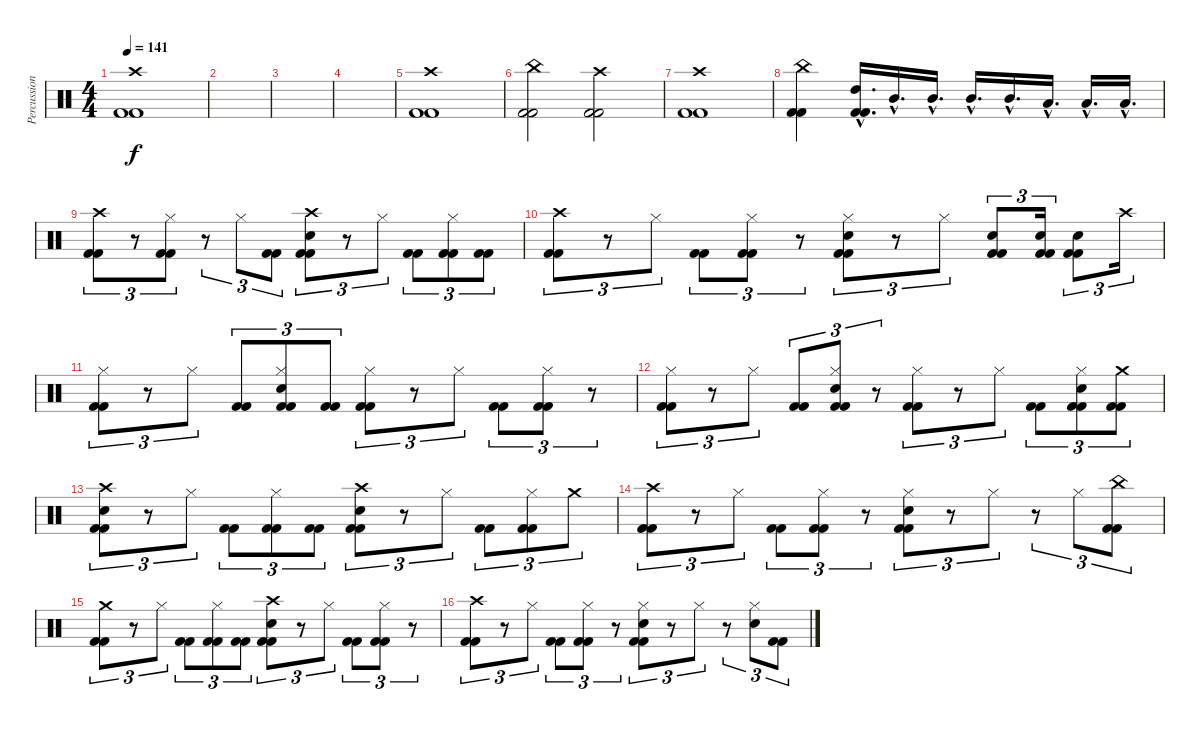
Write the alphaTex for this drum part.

\track ("Percussions" "Percussion") {instrument percussion}
\staff {score}
\articulation defaults
\ts (4 4)
\tempo 141
\clef neutral
\ks c
("Crash high (hit)" "Kick (hit) 2" "Kick (hit) 2").1{dy f} |
|
|
|
("Crash high (hit)" "Kick (hit) 2" "Kick (hit) 2").1 |
("China (hit)" "Kick (hit) 2" "Kick (hit) 2").2 ("Crash high (hit)" "Kick (hit) 2" "Kick (hit) 2").2 |
("Crash high (hit)" "Kick (hit) 2" "Kick (hit) 2").1 |
("China (hit)" "Kick (hit) 2" "Kick (hit) 2").4 ("High Tom (hit)"{hac} "Kick (hit) 2"{hac} "Kick (hit) 2"{hac}).16{d} "Mid Tom (hit)"{hac}.16{d} "Mid Tom (hit)"{hac}.16{d} "Mid Tom (hit)"{hac}.16{d} "Mid Tom (hit)"{hac}.16{d} "Low Tom (hit)"{hac}.16{d} "Low Tom (hit)"{hac}.16{d} "Low Tom (hit)"{hac}.16{d} |
("Crash high (hit)" "Kick (hit) 2" "Kick (hit) 2").8{tu (3 2)} r.8{tu (3 2)} ("Hi-Hat (closed)" "Kick (hit) 2" "Kick (hit) 2").8{tu (3 2)} r.8{tu (3 2)} "Hi-Hat (closed)".8{tu (3 2)} ("Kick (hit) 2" "Kick (hit) 2").8{tu (3 2)} ("Crash high (hit)" "Snare (hit) 2" "Kick (hit) 2" "Kick (hit) 2").8{tu (3 2)} r.8{tu (3 2)} "Hi-Hat (closed)".8{tu (3 2)} ("Kick (hit) 2" "Kick (hit) 2").8{tu (3 2)} ("Hi-Hat (closed)" "Kick (hit) 2" "Kick (hit) 2").8{tu (3 2)} ("Kick (hit) 2" "Kick (hit) 2").8{tu (3 2)} |
("Crash high (hit)" "Kick (hit) 2" "Kick (hit) 2").8{tu (3 2)} r.8{tu (3 2)} "Hi-Hat (closed)".8{tu (3 2)} ("Kick (hit) 2" "Kick (hit) 2").8{tu (3 2)} ("Hi-Hat (closed)" "Kick (hit) 2" "Kick (hit) 2").8{tu (3 2)} r.8{tu (3 2)} ("Hi-Hat (closed)" "Snare (hit) 2" "Kick (hit) 2" "Kick (hit) 2").8{tu (3 2)} r.8{tu (3 2)} "Hi-Hat (closed)".8{tu (3 2)} ("Snare (hit) 2" "Kick (hit) 2" "Kick (hit) 2").8{tu (3 2)} ("Snare (hit) 2" "Kick (hit) 2" "Kick (hit) 2").16{tu (3 2)} ("Snare (hit) 2" "Kick (hit) 2" "Kick (hit) 2").8{tu (3 2)} "Crash high (hit)".16{tu (3 2)} |
("Hi-Hat (closed)" "Kick (hit) 2" "Kick (hit) 2").8{tu (3 2)} r.8{tu (3 2)} "Hi-Hat (closed)".8{tu (3 2)} ("Kick (hit) 2" "Kick (hit) 2").8{tu (3 2)} ("Hi-Hat (closed)" "Snare (hit) 2" "Kick (hit) 2" "Kick (hit) 2").8{tu (3 2)} ("Kick (hit) 2" "Kick (hit) 2").8{tu (3 2)} ("Hi-Hat (closed)" "Kick (hit) 2" "Kick (hit) 2").8{tu (3 2)} r.8{tu (3 2)} "Hi-Hat (closed)".8{tu (3 2)} ("Kick (hit) 2" "Kick (hit) 2").8{tu (3 2)} ("Hi-Hat (closed)" "Kick (hit) 2" "Kick (hit) 2").8{tu (3 2)} r.8{tu (3 2)} |
("Hi-Hat (closed)" "Kick (hit) 2" "Kick (hit) 2").8{tu (3 2)} r.8{tu (3 2)} "Hi-Hat (closed)".8{tu (3 2)} ("Kick (hit) 2" "Kick (hit) 2").8{tu (3 2)} ("Hi-Hat (closed)" "Snare (hit) 2" "Kick (hit) 2" "Kick (hit) 2").8{tu (3 2)} r.8{tu (3 2)} ("Hi-Hat (closed)" "Kick (hit) 2" "Kick (hit) 2").8{tu (3 2)} r.8{tu (3 2)} "Hi-Hat (closed)".8{tu (3 2)} ("Kick (hit) 2" "Kick (hit) 2").8{tu (3 2)} ("Hi-Hat (closed)" "Snare (hit) 2" "Kick (hit) 2" "Kick (hit) 2").8{tu (3 2)} ("Crash medium (hit)" "Kick (hit) 2" "Kick (hit) 2").8{tu (3 2)} |
("Crash high (hit)" "Snare (hit) 2" "Kick (hit) 2" "Kick (hit) 2").8{tu (3 2)} r.8{tu (3 2)} "Hi-Hat (closed)".8{tu (3 2)} ("Kick (hit) 2" "Kick (hit) 2").8{tu (3 2)} ("Hi-Hat (closed)" "Kick (hit) 2" "Kick (hit) 2").8{tu (3 2)} ("Kick (hit) 2" "Kick (hit) 2").8{tu (3 2)} ("Crash high (hit)" "Snare (hit) 2" "Kick (hit) 2" "Kick (hit) 2").8{tu (3 2)} r.8{tu (3 2)} "Hi-Hat (closed)".8{tu (3 2)} ("Kick (hit) 2" "Kick (hit) 2").8{tu (3 2)} ("Hi-Hat (closed)" "Kick (hit) 2" "Kick (hit) 2").8{tu (3 2)} "Crash medium (hit)".8{tu (3 2)} |
("Crash high (hit)" "Kick (hit) 2" "Kick (hit) 2").8{tu (3 2)} r.8{tu (3 2)} "Hi-Hat (closed)".8{tu (3 2)} ("Kick (hit) 2" "Kick (hit) 2").8{tu (3 2)} ("Hi-Hat (closed)" "Kick (hit) 2" "Kick (hit) 2").8{tu (3 2)} r.8{tu (3 2)} ("Hi-Hat (closed)" "Snare (hit) 2" "Kick (hit) 2" "Kick (hit) 2").8{tu (3 2)} r.8{tu (3 2)} "Hi-Hat (closed)".8{tu (3 2)} r.8{tu (3 2)} "Hi-Hat (closed)".8{tu (3 2)} ("China (hit)" "Kick (hit) 2" "Kick (hit) 2").8{tu (3 2)} |
("Crash medium (hit)" "Kick (hit) 2" "Kick (hit) 2").8{tu (3 2)} r.8{tu (3 2)} "Hi-Hat (closed)".8{tu (3 2)} ("Kick (hit) 2" "Kick (hit) 2").8{tu (3 2)} ("Hi-Hat (closed)" "Kick (hit) 2" "Kick (hit) 2").8{tu (3 2)} ("Kick (hit) 2" "Kick (hit) 2").8{tu (3 2)} ("Crash high (hit)" "Snare (hit) 2" "Kick (hit) 2" "Kick (hit) 2").8{tu (3 2)} r.8{tu (3 2)} "Hi-Hat (closed)".8{tu (3 2)} ("Kick (hit) 2" "Kick (hit) 2").8{tu (3 2)} ("Hi-Hat (closed)" "Kick (hit) 2" "Kick (hit) 2").8{tu (3 2)} r.8{tu (3 2)} |
("Crash high (hit)" "Kick (hit) 2" "Kick (hit) 2").8{tu (3 2)} r.8{tu (3 2)} "Hi-Hat (closed)".8{tu (3 2)} ("Kick (hit) 2" "Kick (hit) 2").8{tu (3 2)} ("Hi-Hat (closed)" "Kick (hit) 2" "Kick (hit) 2").8{tu (3 2)} r.8{tu (3 2)} ("Hi-Hat (closed)" "Snare (hit) 2" "Kick (hit) 2" "Kick (hit) 2").8{tu (3 2)} r.8{tu (3 2)} "Hi-Hat (closed)".8{tu (3 2)} r.8{tu (3 2)} ("Hi-Hat (closed)" "Snare (hit) 2").8{tu (3 2)} ("Kick (hit) 2" "Kick (hit) 2").8{tu (3 2)}
